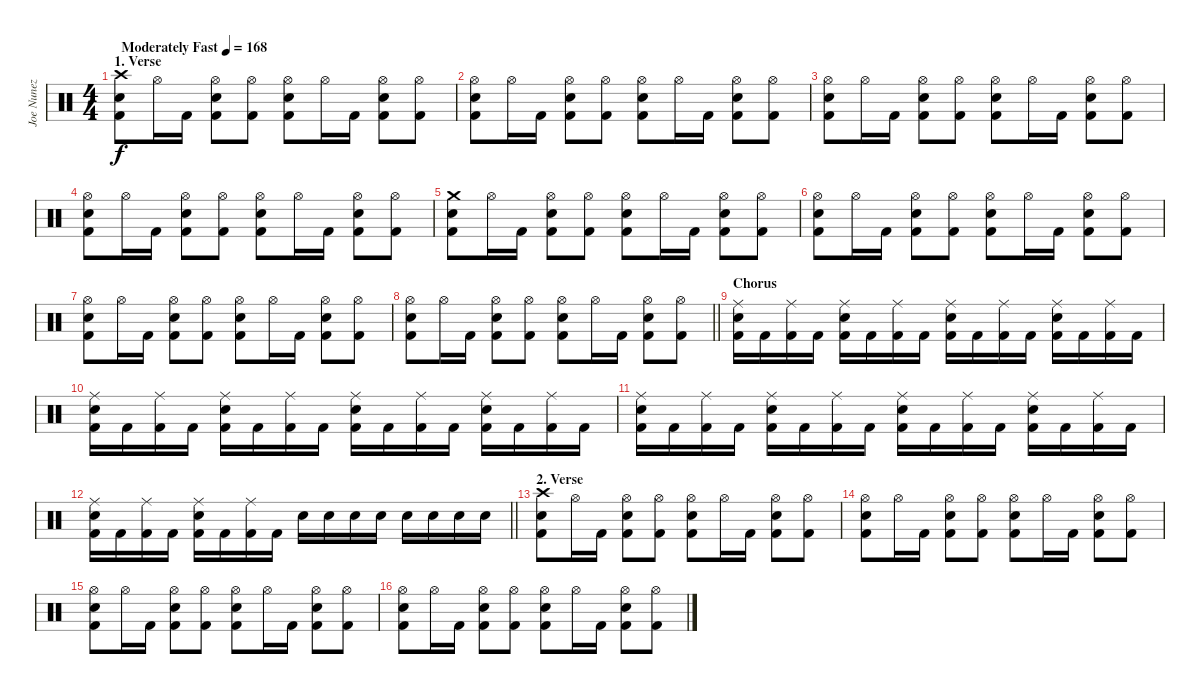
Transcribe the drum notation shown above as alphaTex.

\track ("Joe Nunez (Drums)" "Joe Nunez ") {instrument percussion}
\staff {score}
\articulation defaults
\ts (4 4)
\section ("" "1. Verse")
\tempo (168 "Moderately Fast")
\clef neutral
\ks c
("Crash high (hit)" "Snare (hit) 2" "Kick (hit) 2").8{dy f} "Hi-Hat (open)".16 "Kick (hit) 2".16 ("Hi-Hat (open)" "Snare (hit) 2" "Kick (hit) 2").8 ("Hi-Hat (open)" "Kick (hit) 2").8 ("Hi-Hat (open)" "Snare (hit) 2" "Kick (hit) 2").8 "Hi-Hat (open)".16 "Kick (hit) 2".16 ("Hi-Hat (open)" "Snare (hit) 2" "Kick (hit) 2").8 ("Hi-Hat (open)" "Kick (hit) 2").8 |
("Hi-Hat (open)" "Snare (hit) 2" "Kick (hit) 2").8 "Hi-Hat (open)".16 "Kick (hit) 2".16 ("Hi-Hat (open)" "Snare (hit) 2" "Kick (hit) 2").8 ("Hi-Hat (open)" "Kick (hit) 2").8 ("Hi-Hat (open)" "Snare (hit) 2" "Kick (hit) 2").8 "Hi-Hat (open)".16 "Kick (hit) 2".16 ("Hi-Hat (open)" "Snare (hit) 2" "Kick (hit) 2").8 ("Hi-Hat (open)" "Kick (hit) 2").8 |
("Hi-Hat (open)" "Snare (hit) 2" "Kick (hit) 2").8 "Hi-Hat (open)".16 "Kick (hit) 2".16 ("Hi-Hat (open)" "Snare (hit) 2" "Kick (hit) 2").8 ("Hi-Hat (open)" "Kick (hit) 2").8 ("Hi-Hat (open)" "Snare (hit) 2" "Kick (hit) 2").8 "Hi-Hat (open)".16 "Kick (hit) 2".16 ("Hi-Hat (open)" "Snare (hit) 2" "Kick (hit) 2").8 ("Hi-Hat (open)" "Kick (hit) 2").8 |
("Hi-Hat (open)" "Snare (hit) 2" "Kick (hit) 2").8 "Hi-Hat (open)".16 "Kick (hit) 2".16 ("Hi-Hat (open)" "Snare (hit) 2" "Kick (hit) 2").8 ("Hi-Hat (open)" "Kick (hit) 2").8 ("Hi-Hat (open)" "Snare (hit) 2" "Kick (hit) 2").8 "Hi-Hat (open)".16 "Kick (hit) 2".16 ("Hi-Hat (open)" "Snare (hit) 2" "Kick (hit) 2").8 ("Hi-Hat (open)" "Kick (hit) 2").8 |
("Crash medium (hit)" "Snare (hit) 2" "Kick (hit) 2").8 "Hi-Hat (open)".16 "Kick (hit) 2".16 ("Hi-Hat (open)" "Snare (hit) 2" "Kick (hit) 2").8 ("Hi-Hat (open)" "Kick (hit) 2").8 ("Hi-Hat (open)" "Snare (hit) 2" "Kick (hit) 2").8 "Hi-Hat (open)".16 "Kick (hit) 2".16 ("Hi-Hat (open)" "Snare (hit) 2" "Kick (hit) 2").8 ("Hi-Hat (open)" "Kick (hit) 2").8 |
("Hi-Hat (open)" "Snare (hit) 2" "Kick (hit) 2").8 "Hi-Hat (open)".16 "Kick (hit) 2".16 ("Hi-Hat (open)" "Snare (hit) 2" "Kick (hit) 2").8 ("Hi-Hat (open)" "Kick (hit) 2").8 ("Hi-Hat (open)" "Snare (hit) 2" "Kick (hit) 2").8 "Hi-Hat (open)".16 "Kick (hit) 2".16 ("Hi-Hat (open)" "Snare (hit) 2" "Kick (hit) 2").8 ("Hi-Hat (open)" "Kick (hit) 2").8 |
("Hi-Hat (open)" "Snare (hit) 2" "Kick (hit) 2").8 "Hi-Hat (open)".16 "Kick (hit) 2".16 ("Hi-Hat (open)" "Snare (hit) 2" "Kick (hit) 2").8 ("Hi-Hat (open)" "Kick (hit) 2").8 ("Hi-Hat (open)" "Snare (hit) 2" "Kick (hit) 2").8 "Hi-Hat (open)".16 "Kick (hit) 2".16 ("Hi-Hat (open)" "Snare (hit) 2" "Kick (hit) 2").8 ("Hi-Hat (open)" "Kick (hit) 2").8 |
\barLineRight lightlight
("Hi-Hat (open)" "Snare (hit) 2" "Kick (hit) 2").8 "Hi-Hat (open)".16 "Kick (hit) 2".16 ("Hi-Hat (open)" "Snare (hit) 2" "Kick (hit) 2").8 ("Hi-Hat (open)" "Kick (hit) 2").8 ("Hi-Hat (open)" "Snare (hit) 2" "Kick (hit) 2").8 "Hi-Hat (open)".16 "Kick (hit) 2".16 ("Hi-Hat (open)" "Snare (hit) 2" "Kick (hit) 2").8 ("Hi-Hat (open)" "Kick (hit) 2").8 |
\section ("" "Chorus")
("Ride (middle)" "Snare (hit) 2" "Kick (hit) 2").16 "Kick (hit) 2".16 ("Ride (middle)" "Kick (hit) 2").16 "Kick (hit) 2".16 ("Ride (middle)" "Snare (hit) 2" "Kick (hit) 2").16 "Kick (hit) 2".16 ("Ride (middle)" "Kick (hit) 2").16 "Kick (hit) 2".16 ("Ride (middle)" "Snare (hit) 2" "Kick (hit) 2").16 "Kick (hit) 2".16 ("Ride (middle)" "Kick (hit) 2").16 "Kick (hit) 2".16 ("Ride (middle)" "Snare (hit) 2" "Kick (hit) 2").16 "Kick (hit) 2".16 ("Ride (middle)" "Kick (hit) 2").16 "Kick (hit) 2".16 |
("Ride (middle)" "Snare (hit) 2" "Kick (hit) 2").16 "Kick (hit) 2".16 ("Ride (middle)" "Kick (hit) 2").16 "Kick (hit) 2".16 ("Ride (middle)" "Snare (hit) 2" "Kick (hit) 2").16 "Kick (hit) 2".16 ("Ride (middle)" "Kick (hit) 2").16 "Kick (hit) 2".16 ("Ride (middle)" "Snare (hit) 2" "Kick (hit) 2").16 "Kick (hit) 2".16 ("Ride (middle)" "Kick (hit) 2").16 "Kick (hit) 2".16 ("Ride (middle)" "Snare (hit) 2" "Kick (hit) 2").16 "Kick (hit) 2".16 ("Ride (middle)" "Kick (hit) 2").16 "Kick (hit) 2".16 |
("Ride (middle)" "Snare (hit) 2" "Kick (hit) 2").16 "Kick (hit) 2".16 ("Ride (middle)" "Kick (hit) 2").16 "Kick (hit) 2".16 ("Ride (middle)" "Snare (hit) 2" "Kick (hit) 2").16 "Kick (hit) 2".16 ("Ride (middle)" "Kick (hit) 2").16 "Kick (hit) 2".16 ("Ride (middle)" "Snare (hit) 2" "Kick (hit) 2").16 "Kick (hit) 2".16 ("Ride (middle)" "Kick (hit) 2").16 "Kick (hit) 2".16 ("Ride (middle)" "Snare (hit) 2" "Kick (hit) 2").16 "Kick (hit) 2".16 ("Ride (middle)" "Kick (hit) 2").16 "Kick (hit) 2".16 |
\barLineRight lightlight
("Ride (middle)" "Snare (hit) 2" "Kick (hit) 2").16 "Kick (hit) 2".16 ("Ride (middle)" "Kick (hit) 2").16 "Kick (hit) 2".16 ("Ride (middle)" "Snare (hit) 2" "Kick (hit) 2").16 "Kick (hit) 2".16 ("Ride (middle)" "Kick (hit) 2").16 "Kick (hit) 2".16 "Snare (hit) 2".16 "Snare (hit) 2".16 "Snare (hit) 2".16 "Snare (hit) 2".16 "Snare (hit) 2".16 "Snare (hit) 2".16 "Snare (hit) 2".16 "Snare (hit) 2".16 |
\section ("" "2. Verse")
("Crash high (hit)" "Snare (hit) 2" "Kick (hit) 2").8 "Hi-Hat (open)".16 "Kick (hit) 2".16 ("Hi-Hat (open)" "Snare (hit) 2" "Kick (hit) 2").8 ("Hi-Hat (open)" "Kick (hit) 2").8 ("Hi-Hat (open)" "Snare (hit) 2" "Kick (hit) 2").8 "Hi-Hat (open)".16 "Kick (hit) 2".16 ("Hi-Hat (open)" "Snare (hit) 2" "Kick (hit) 2").8 ("Hi-Hat (open)" "Kick (hit) 2").8 |
("Hi-Hat (open)" "Snare (hit) 2" "Kick (hit) 2").8 "Hi-Hat (open)".16 "Kick (hit) 2".16 ("Hi-Hat (open)" "Snare (hit) 2" "Kick (hit) 2").8 ("Hi-Hat (open)" "Kick (hit) 2").8 ("Hi-Hat (open)" "Snare (hit) 2" "Kick (hit) 2").8 "Hi-Hat (open)".16 "Kick (hit) 2".16 ("Hi-Hat (open)" "Snare (hit) 2" "Kick (hit) 2").8 ("Hi-Hat (open)" "Kick (hit) 2").8 |
("Hi-Hat (open)" "Snare (hit) 2" "Kick (hit) 2").8 "Hi-Hat (open)".16 "Kick (hit) 2".16 ("Hi-Hat (open)" "Snare (hit) 2" "Kick (hit) 2").8 ("Hi-Hat (open)" "Kick (hit) 2").8 ("Hi-Hat (open)" "Snare (hit) 2" "Kick (hit) 2").8 "Hi-Hat (open)".16 "Kick (hit) 2".16 ("Hi-Hat (open)" "Snare (hit) 2" "Kick (hit) 2").8 ("Hi-Hat (open)" "Kick (hit) 2").8 |
("Hi-Hat (open)" "Snare (hit) 2" "Kick (hit) 2").8 "Hi-Hat (open)".16 "Kick (hit) 2".16 ("Hi-Hat (open)" "Snare (hit) 2" "Kick (hit) 2").8 ("Hi-Hat (open)" "Kick (hit) 2").8 ("Hi-Hat (open)" "Snare (hit) 2" "Kick (hit) 2").8 "Hi-Hat (open)".16 "Kick (hit) 2".16 ("Hi-Hat (open)" "Snare (hit) 2" "Kick (hit) 2").8 ("Hi-Hat (open)" "Kick (hit) 2").8
